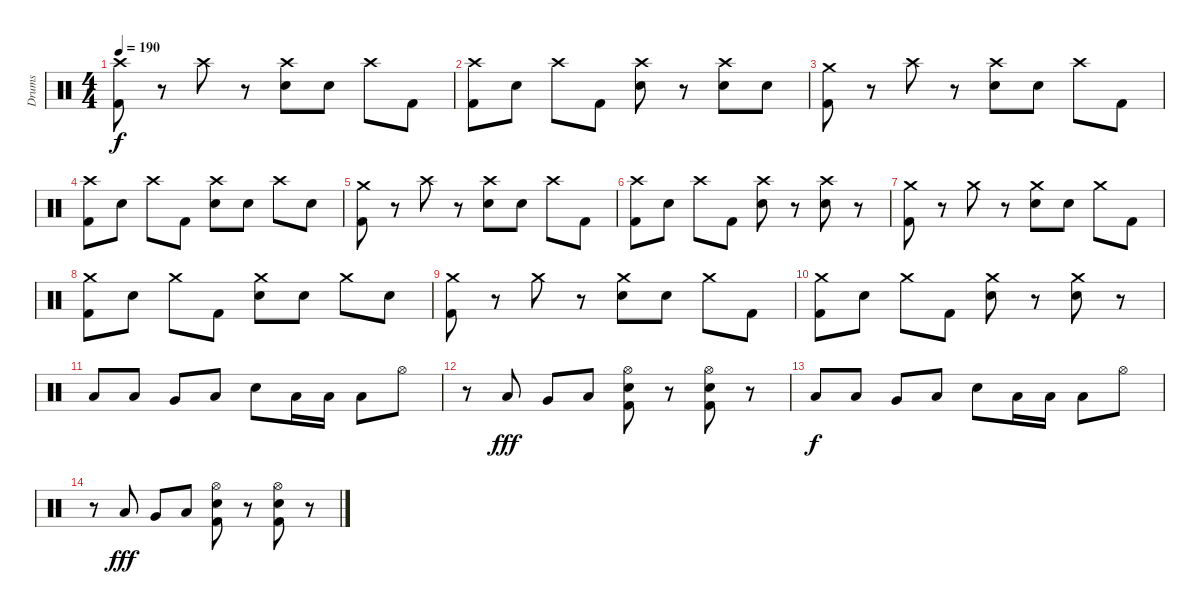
\track ("Drums" "Drums") {instrument percussion}
\staff {score}
\articulation defaults
\ts (4 4)
\tempo 190
\clef neutral
\ks c
("Crash high (hit)" "Kick (hit) 2").8{dy f} r.8 "Crash high (hit)".8 r.8 ("Crash high (hit)" "Electric Snare (hit)").8 "Electric Snare (hit)".8 "Crash high (hit)".8 "Kick (hit) 2".8 |
("Crash high (hit)" "Kick (hit) 2").8 "Electric Snare (hit)".8 "Crash high (hit)".8 "Kick (hit) 2".8 ("Crash high (hit)" "Electric Snare (hit)").8 r.8 ("Crash high (hit)" "Electric Snare (hit)").8 "Electric Snare (hit)".8 |
("Crash medium (hit)" "Kick (hit) 2").8 r.8 "Crash high (hit)".8 r.8 ("Crash high (hit)" "Electric Snare (hit)").8 "Electric Snare (hit)".8 "Crash high (hit)".8 "Kick (hit) 2".8 |
("Crash high (hit)" "Kick (hit) 2").8 "Electric Snare (hit)".8 "Crash high (hit)".8 "Kick (hit) 2".8 ("Crash high (hit)" "Electric Snare (hit)").8 "Electric Snare (hit)".8 "Crash high (hit)".8 "Electric Snare (hit)".8 |
("Crash medium (hit)" "Kick (hit) 2").8 r.8 "Crash high (hit)".8 r.8 ("Crash high (hit)" "Electric Snare (hit)").8 "Electric Snare (hit)".8 "Crash high (hit)".8 "Kick (hit) 2".8 |
("Crash high (hit)" "Kick (hit) 2").8 "Electric Snare (hit)".8 "Crash high (hit)".8 "Kick (hit) 2".8 ("Crash high (hit)" "Electric Snare (hit)").8 r.8 ("Crash high (hit)" "Electric Snare (hit)").8 r.8 |
("Crash medium (hit)" "Kick (hit) 2").8 r.8 "Crash medium (hit)".8 r.8 ("Crash medium (hit)" "Electric Snare (hit)").8 "Electric Snare (hit)".8 "Crash medium (hit)".8 "Kick (hit) 2".8 |
("Crash medium (hit)" "Kick (hit) 2").8 "Electric Snare (hit)".8 "Crash medium (hit)".8 "Kick (hit) 2".8 ("Crash medium (hit)" "Electric Snare (hit)").8 "Electric Snare (hit)".8 "Crash medium (hit)".8 "Electric Snare (hit)".8 |
("Crash medium (hit)" "Kick (hit) 2").8 r.8 "Crash medium (hit)".8 r.8 ("Crash medium (hit)" "Electric Snare (hit)").8 "Electric Snare (hit)".8 "Crash medium (hit)".8 "Kick (hit) 2".8 |
("Crash medium (hit)" "Kick (hit) 2").8 "Electric Snare (hit)".8 "Crash medium (hit)".8 "Kick (hit) 2".8 ("Crash medium (hit)" "Electric Snare (hit)").8 r.8 ("Crash medium (hit)" "Electric Snare (hit)").8 r.8 |
"Low Tom (hit)".8 "Low Tom (hit)".8 "Very Low Tom (hit)".8 "Low Floor Tom (hit)".8 "Electric Snare (hit)".8 "Low Tom (hit)".16 "Low Tom (hit)".16 "Low Tom (hit)".8 "Hi-Hat (open)".8 |
r.8 "Low Tom (hit)".8{dy fff} "Very Low Tom (hit)".8 "Low Floor Tom (hit)".8 ("Hi-Hat (open)" "Electric Snare (hit)" "Kick (hit) 2").8 r.8 ("Hi-Hat (open)" "Electric Snare (hit)" "Kick (hit) 2").8 r.8 |
"Low Tom (hit)".8{dy f} "Low Tom (hit)".8 "Very Low Tom (hit)".8 "Low Floor Tom (hit)".8 "Electric Snare (hit)".8 "Low Tom (hit)".16 "Low Tom (hit)".16 "Low Tom (hit)".8 "Hi-Hat (open)".8 |
r.8 "Low Tom (hit)".8{dy fff} "Very Low Tom (hit)".8 "Low Floor Tom (hit)".8 ("Hi-Hat (open)" "Electric Snare (hit)" "Kick (hit) 2").8 r.8 ("Hi-Hat (open)" "Electric Snare (hit)" "Kick (hit) 2").8 r.8
